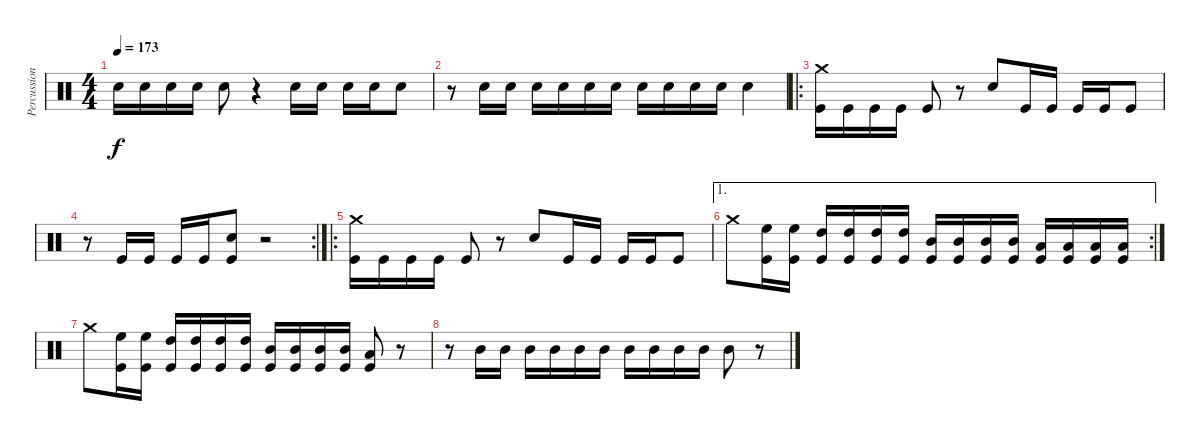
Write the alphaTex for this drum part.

\track ("Percussion" "Percussion") {instrument percussion}
\staff {score}
\articulation defaults
\ts (4 4)
\tempo 173
\clef neutral
\ks c "Snare (hit) 2".16{dy f} "Snare (hit) 2".16 "Snare (hit) 2".16 "Snare (hit) 2".16 "Snare (hit) 2".8
r.4 "Snare (hit) 2".16 "Snare (hit) 2".16 "Snare (hit) 2".16 "Snare (hit) 2".16 "Snare (hit) 2".8 |
r.8 "Snare (hit) 2".16 "Snare (hit) 2".16 "Snare (hit) 2".16 "Snare (hit) 2".16 "Snare (hit) 2".16 "Snare (hit) 2".16 "Snare (hit) 2".16 "Snare (hit) 2".16 "Snare (hit) 2".16 "Snare (hit) 2".16 "Snare (hit) 2".4 |
\ro
("Crash medium (hit)" "Kick (hit)").16 "Kick (hit)".16 "Kick (hit)".16 "Kick (hit)".16 "Kick (hit)".8 r.8 "Snare (hit) 2".8 "Kick (hit)".16 "Kick (hit)".16 "Kick (hit)".16 "Kick (hit)".16 "Kick (hit)".8 |
\rc 2
r.8 "Kick (hit)".16 "Kick (hit)".16 "Kick (hit)".16 "Kick (hit)".16 ("Snare (hit) 2" "Kick (hit)").8 r.2 |
\ro
("Crash medium (hit)" "Kick (hit)").16 "Kick (hit)".16 "Kick (hit)".16 "Kick (hit)".16 "Kick (hit)".8 r.8 "Snare (hit) 2".8 "Kick (hit)".16 "Kick (hit)".16 "Kick (hit)".16 "Kick (hit)".16 "Kick (hit)".8 |
\ae 1
\rc 2 "Crash medium (hit)".8
("High Floor Tom (hit)" "Kick (hit)").16 ("High Floor Tom (hit)" "Kick (hit)").16 ("High Tom (hit)" "Kick (hit)").16 ("High Tom (hit)" "Kick (hit)").16 ("High Tom (hit)" "Kick (hit)").16 ("High Tom (hit)" "Kick (hit)").16 ("Mid Tom (hit)" "Kick (hit)").16 ("Mid Tom (hit)" "Kick (hit)").16 ("Mid Tom (hit)" "Kick (hit)").16 ("Mid Tom (hit)" "Kick (hit)").16 ("Low Tom (hit)" "Kick (hit)").16 ("Low Tom (hit)" "Kick (hit)").16 ("Low Tom (hit)" "Kick (hit)").16 ("Low Tom (hit)" "Kick (hit)").16 |
"Crash medium (hit)".8 ("High Floor Tom (hit)" "Kick (hit)").16 ("High Floor Tom (hit)" "Kick (hit)").16 ("High Tom (hit)" "Kick (hit)").16 ("High Tom (hit)" "Kick (hit)").16 ("High Tom (hit)" "Kick (hit)").16 ("High Tom (hit)" "Kick (hit)").16 ("Mid Tom (hit)" "Kick (hit)").16 ("Mid Tom (hit)" "Kick (hit)").16 ("Mid Tom (hit)" "Kick (hit)").16 ("Mid Tom (hit)" "Kick (hit)").16 ("Low Tom (hit)" "Kick (hit)").8 r.8 |
r.8 "Mid Tom (hit)".16 "Mid Tom (hit)".16 "Mid Tom (hit)".16 "Mid Tom (hit)".16 "Mid Tom (hit)".16 "Mid Tom (hit)".16 "Mid Tom (hit)".16 "Mid Tom (hit)".16 "Mid Tom (hit)".16 "Mid Tom (hit)".16 "Mid Tom (hit)".8 r.8
